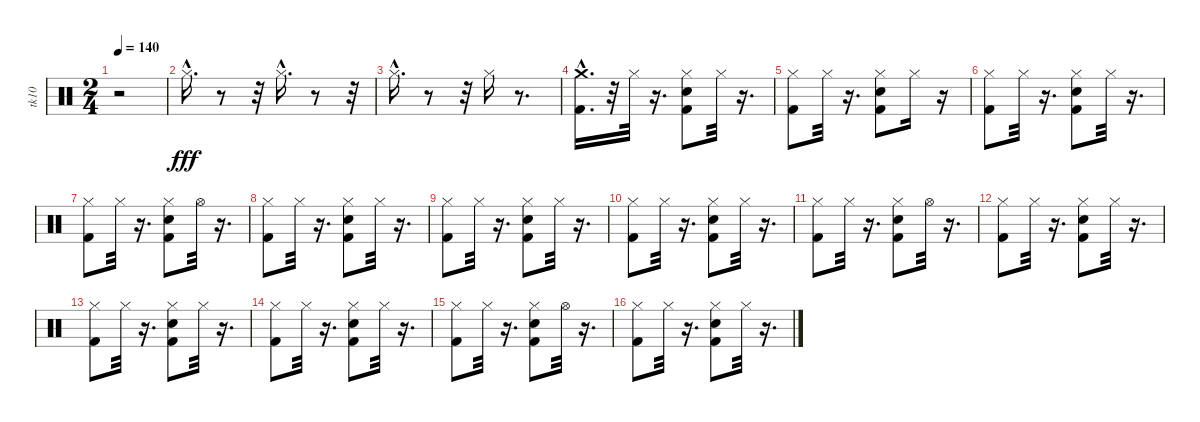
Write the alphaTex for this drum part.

\track ("tk10" "tk10") {instrument percussion}
\staff {score}
\articulation defaults
\ts (2 4)
\tempo 140
\clef neutral
\ks c
r.2{dy fff} |
"Hi-Hat (closed)"{hac}.16{d balance 8} r.8 r.32 "Hi-Hat (closed)"{hac}.16{d} r.8 r.32 |
"Hi-Hat (closed)"{hac}.16{d} r.8 r.32 "Hi-Hat (closed)".16 r.8{d} |
("Kick (hit) 2"{hac} "Crash medium (hit)").16{d} r.32 "Hi-Hat (closed)".32 r.16{d} ("Kick (hit) 2" "Snare (hit) 2" "Hi-Hat (closed)").8 "Hi-Hat (closed)".32 r.16{d} |
("Kick (hit) 2" "Hi-Hat (closed)").8 "Hi-Hat (closed)".32 r.16{d} ("Snare (hit) 2" "Kick (hit) 2" "Hi-Hat (closed)").8 "Hi-Hat (closed)".16 r.16 |
("Kick (hit) 2" "Hi-Hat (closed)").8 "Hi-Hat (closed)".32 r.16{d} ("Kick (hit) 2" "Hi-Hat (closed)" "Snare (hit) 2").8 "Hi-Hat (closed)".32 r.16{d} |
("Kick (hit) 2" "Hi-Hat (closed)").8 "Hi-Hat (closed)".32 r.16{d} ("Hi-Hat (closed)" "Kick (hit) 2" "Snare (hit) 2").8 "Hi-Hat (open)".32 r.16{d} |
("Kick (hit) 2" "Hi-Hat (closed)").8 "Hi-Hat (closed)".32 r.16{d} ("Kick (hit) 2" "Hi-Hat (closed)" "Snare (hit) 2").8 "Hi-Hat (closed)".32 r.16{d} |
("Kick (hit) 2" "Hi-Hat (closed)").8 "Hi-Hat (closed)".32 r.16{d} ("Hi-Hat (closed)" "Snare (hit) 2" "Kick (hit) 2").8 "Hi-Hat (closed)".32 r.16{d} |
("Kick (hit) 2" "Hi-Hat (closed)").8 "Hi-Hat (closed)".32 r.16{d} ("Snare (hit) 2" "Kick (hit) 2" "Hi-Hat (closed)").8 "Hi-Hat (closed)".32 r.16{d} |
("Kick (hit) 2" "Hi-Hat (closed)").8 "Hi-Hat (closed)".32 r.16{d} ("Hi-Hat (closed)" "Snare (hit) 2" "Kick (hit) 2").8 "Hi-Hat (open)".32 r.16{d} |
("Kick (hit) 2" "Hi-Hat (closed)").8 "Hi-Hat (closed)".32 r.16{d} ("Hi-Hat (closed)" "Snare (hit) 2" "Kick (hit) 2").8 "Hi-Hat (closed)".32 r.16{d} |
("Kick (hit) 2" "Hi-Hat (closed)").8 "Hi-Hat (closed)".32 r.16{d} ("Kick (hit) 2" "Hi-Hat (closed)" "Snare (hit) 2").8 "Hi-Hat (closed)".32 r.16{d} |
("Kick (hit) 2" "Hi-Hat (closed)").8 "Hi-Hat (closed)".32 r.16{d} ("Snare (hit) 2" "Kick (hit) 2" "Hi-Hat (closed)").8 "Hi-Hat (closed)".32 r.16{d} |
("Kick (hit) 2" "Hi-Hat (closed)").8 "Hi-Hat (closed)".32 r.16{d} ("Snare (hit) 2" "Kick (hit) 2" "Hi-Hat (closed)").8 "Hi-Hat (open)".32 r.16{d} |
("Kick (hit) 2" "Hi-Hat (closed)").8 "Hi-Hat (closed)".32 r.16{d} ("Snare (hit) 2" "Kick (hit) 2" "Hi-Hat (closed)").8 "Hi-Hat (closed)".32 r.16{d}
